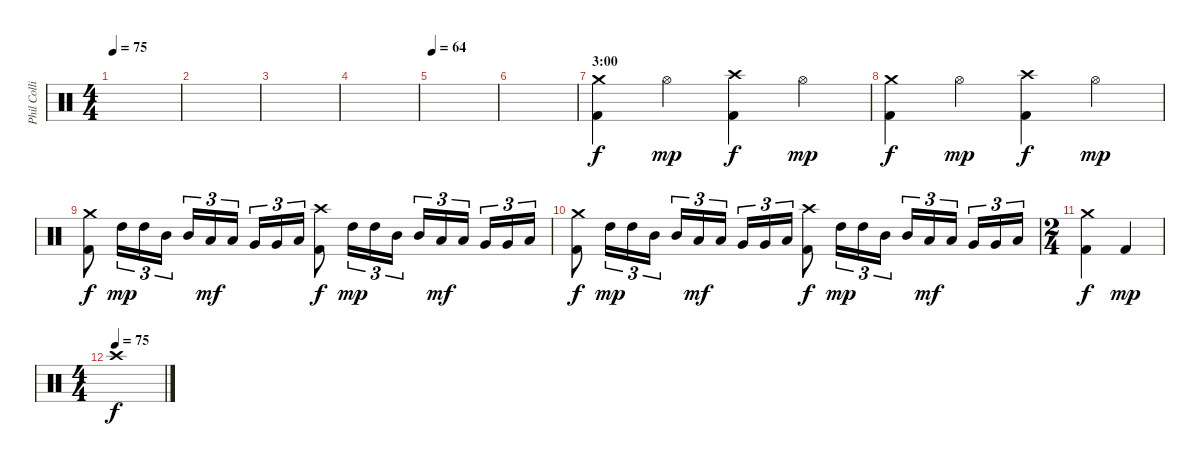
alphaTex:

\track ("Phil Collins (drums)" "Phil Colli") {instrument percussion}
\staff {score}
\articulation defaults
\ts (4 4)
\tempo 75
\clef neutral
\ks c
|
|
|
|
\tempo 64
|
|
\section ("" "3:00")
("Crash medium (hit)" "Kick (hit) 2").4 "Hi-Hat (open)".4{dy mp} ("Crash high (hit)" "Kick (hit) 2").4{dy f} "Hi-Hat (open)".4{dy mp} |
("Crash medium (hit)" "Kick (hit) 2").4{dy f} "Hi-Hat (open)".4{dy mp} ("Crash high (hit)" "Kick (hit) 2").4{dy f} "Hi-Hat (open)".4{dy mp} |
("Crash medium (hit)" "Kick (hit) 2").8{dy f} "High Tom (hit)".16{tu (3 2) dy mp} "High Tom (hit)".16{tu (3 2)} "Mid Tom (hit)".16{tu (3 2)} "Mid Tom (hit)".16{tu (3 2)} "Low Tom (hit)".16{tu (3 2) dy mf} "Low Tom (hit)".16{tu (3 2)} "Very Low Tom (hit)".16{tu (3 2)} "Very Low Tom (hit)".16{tu (3 2)} "Low Floor Tom (hit)".16{tu (3 2)} ("Crash high (hit)" "Kick (hit) 2").8{dy f} "High Tom (hit)".16{tu (3 2) dy mp} "High Tom (hit)".16{tu (3 2)} "Mid Tom (hit)".16{tu (3 2)} "Mid Tom (hit)".16{tu (3 2)} "Low Tom (hit)".16{tu (3 2) dy mf} "Low Tom (hit)".16{tu (3 2)} "Very Low Tom (hit)".16{tu (3 2)} "Very Low Tom (hit)".16{tu (3 2)} "Low Floor Tom (hit)".16{tu (3 2)} |
("Crash medium (hit)" "Kick (hit) 2").8{dy f} "High Tom (hit)".16{tu (3 2) dy mp} "High Tom (hit)".16{tu (3 2)} "Mid Tom (hit)".16{tu (3 2)} "Mid Tom (hit)".16{tu (3 2)} "Low Tom (hit)".16{tu (3 2) dy mf} "Low Tom (hit)".16{tu (3 2)} "Very Low Tom (hit)".16{tu (3 2)} "Very Low Tom (hit)".16{tu (3 2)} "Low Floor Tom (hit)".16{tu (3 2)} ("Crash high (hit)" "Kick (hit) 2").8{dy f} "High Tom (hit)".16{tu (3 2) dy mp} "High Tom (hit)".16{tu (3 2)} "Mid Tom (hit)".16{tu (3 2)} "Mid Tom (hit)".16{tu (3 2)} "Low Tom (hit)".16{tu (3 2) dy mf} "Low Tom (hit)".16{tu (3 2)} "Very Low Tom (hit)".16{tu (3 2)} "Very Low Tom (hit)".16{tu (3 2)} "Low Floor Tom (hit)".16{tu (3 2)} |
\ts (2 4)
("Crash medium (hit)" "Kick (hit) 2").4{dy f} "Kick (hit) 2".4{dy mp} |
\ts (4 4)
\tempo (75)
"Crash high (hit)".1{dy f}
